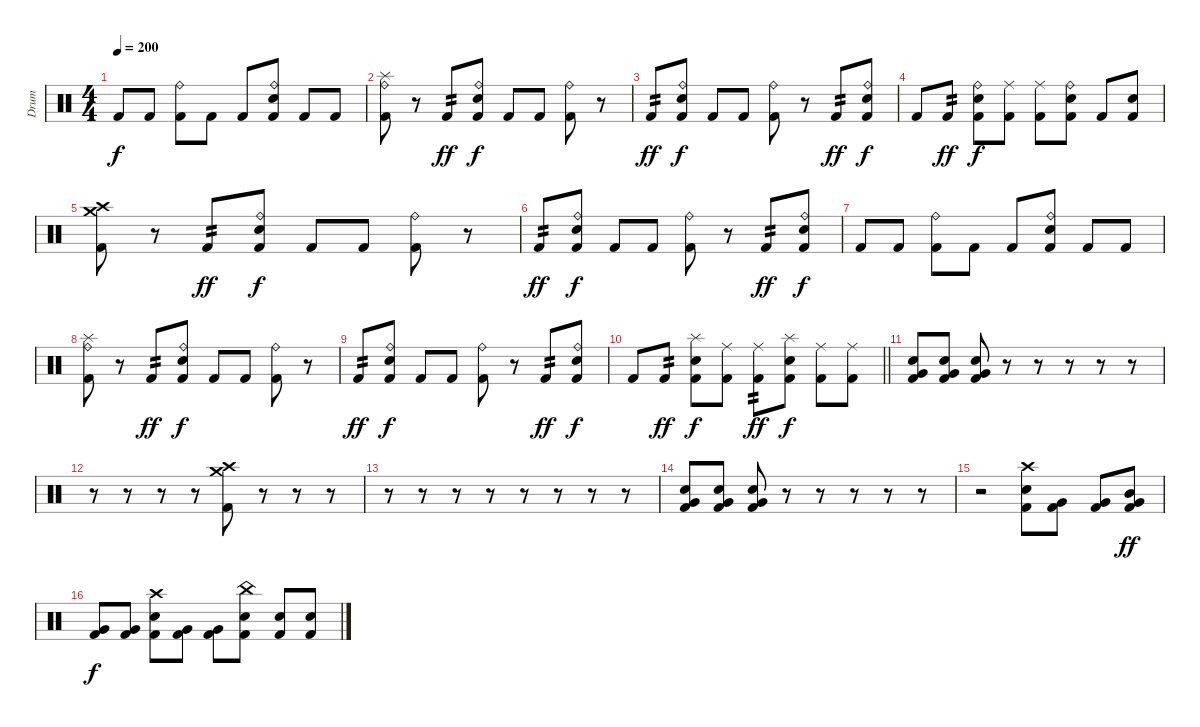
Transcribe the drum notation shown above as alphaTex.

\track ("Drum" "Drum") {instrument percussion}
\staff {score}
\articulation defaults
\ts (4 4)
\tempo 200
\clef neutral
\ks c "Kick (hit) 2".8{dy f} "Kick (hit) 2".8
("Ride (bell)" "Kick (hit) 2").8 "Kick (hit) 2".8 "Kick (hit) 2".8 ("Ride (bell)" "Snare (hit) 2" "Kick (hit) 2").8 "Kick (hit) 2".8 "Kick (hit) 2".8 |
("Ride (bell)" "Splash (hit)" "Kick (hit) 2").8 r.8 "Kick (hit) 2".8{tp 2 dy ff} ("Ride (bell)" "Snare (hit) 2" "Kick (hit) 2").8{dy f} "Kick (hit) 2".8 "Kick (hit) 2".8 ("Ride (bell)" "Kick (hit) 2").8 r.8 |
"Kick (hit) 2".8{tp 2 dy ff} ("Ride (bell)" "Snare (hit) 2" "Kick (hit) 2").8{dy f} "Kick (hit) 2".8 "Kick (hit) 2".8 ("Ride (bell)" "Kick (hit) 2").8 r.8 "Kick (hit) 2".8{tp 2 dy ff} ("Ride (bell)" "Snare (hit) 2" "Kick (hit) 2").8{dy f} |
"Kick (hit) 2".8 "Kick (hit) 2".8{tp 2 dy ff} ("Ride (bell)" "Snare (hit) 2" "Kick (hit) 2").8{dy f} ("Ride (middle)" "Kick (hit) 2").8 ("Ride (middle)" "Kick (hit) 2").8 ("Ride (bell)" "Snare (hit) 2" "Kick (hit) 2").8 "Kick (hit) 2".8 ("Snare (hit) 2" "Kick (hit) 2").8 |
("Crash medium (hit)" "Crash high (hit)" "Kick (hit) 2").8 r.8 "Kick (hit) 2".8{tp 2 dy ff} ("Ride (bell)" "Snare (hit) 2" "Kick (hit) 2").8{dy f} "Kick (hit) 2".8 "Kick (hit) 2".8 ("Ride (bell)" "Kick (hit) 2").8 r.8 |
"Kick (hit) 2".8{tp 2 dy ff} ("Ride (bell)" "Snare (hit) 2" "Kick (hit) 2").8{dy f} "Kick (hit) 2".8 "Kick (hit) 2".8 ("Ride (bell)" "Kick (hit) 2").8 r.8 "Kick (hit) 2".8{tp 2 dy ff} ("Ride (bell)" "Snare (hit) 2" "Kick (hit) 2").8{dy f} |
"Kick (hit) 2".8 "Kick (hit) 2".8 ("Ride (bell)" "Kick (hit) 2").8 "Kick (hit) 2".8 "Kick (hit) 2".8 ("Ride (bell)" "Snare (hit) 2" "Kick (hit) 2").8 "Kick (hit) 2".8 "Kick (hit) 2".8 |
("Ride (bell)" "Splash (hit)" "Kick (hit) 2").8 r.8 "Kick (hit) 2".8{tp 2 dy ff} ("Ride (bell)" "Snare (hit) 2" "Kick (hit) 2").8{dy f} "Kick (hit) 2".8 "Kick (hit) 2".8 ("Ride (bell)" "Kick (hit) 2").8 r.8 |
"Kick (hit) 2".8{tp 2 dy ff} ("Ride (bell)" "Snare (hit) 2" "Kick (hit) 2").8{dy f} "Kick (hit) 2".8 "Kick (hit) 2".8 ("Ride (bell)" "Kick (hit) 2").8 r.8 "Kick (hit) 2".8{tp 2 dy ff} ("Ride (bell)" "Snare (hit) 2" "Kick (hit) 2").8{dy f} |
\barLineRight lightlight "Kick (hit) 2".8 "Kick (hit) 2".8{tp 2 dy ff}
("Splash (hit)" "Snare (hit) 2" "Kick (hit) 2").8{dy f} ("Ride (middle)" "Kick (hit) 2").8 ("Ride (middle)" "Kick (hit) 2").8{tp 2 dy ff} ("Splash (hit)" "Snare (hit) 2" "Kick (hit) 2").8{dy f} ("Ride (middle)" "Kick (hit) 2").8 ("Ride (middle)" "Kick (hit) 2").8 |
("Very Low Tom (hit)" "Snare (hit) 2" "Kick (hit) 2").8 ("Very Low Tom (hit)" "Snare (hit) 2" "Kick (hit) 2").8 ("Very Low Tom (hit)" "Snare (hit) 2" "Kick (hit) 2").8 r.8 r.8 r.8 r.8 r.8 |
r.8 r.8 r.8 r.8 ("Crash high (hit)" "Crash medium (hit)" "Kick (hit) 2").8 r.8 r.8 r.8 |
r.8 r.8 r.8 r.8 r.8 r.8 r.8 r.8 |
("Very Low Tom (hit)" "Snare (hit) 2" "Kick (hit) 2").8 ("Very Low Tom (hit)" "Snare (hit) 2" "Kick (hit) 2").8 ("Very Low Tom (hit)" "Snare (hit) 2" "Kick (hit) 2").8 r.8 r.8 r.8 r.8 r.8 |
r.2 ("Crash high (hit)" "Snare (hit) 2" "Kick (hit) 2").8 ("Very Low Tom (hit)" "Kick (hit) 2").8 ("Very Low Tom (hit)" "Kick (hit) 2").8 ("Mid Tom (hit)" "Very Low Tom (hit)" "Kick (hit) 2").8{dy ff} |
("Very Low Tom (hit)" "Kick (hit) 2").8{dy f} ("Very Low Tom (hit)" "Kick (hit) 2").8 ("Crash high (hit)" "Snare (hit) 2" "Kick (hit) 2").8 ("Very Low Tom (hit)" "Kick (hit) 2").8 ("Very Low Tom (hit)" "Kick (hit) 2").8 ("China (hit)" "Snare (hit) 2" "Kick (hit) 2").8 ("Snare (hit) 2" "Kick (hit) 2").8 ("Snare (hit) 2" "Kick (hit) 2").8
